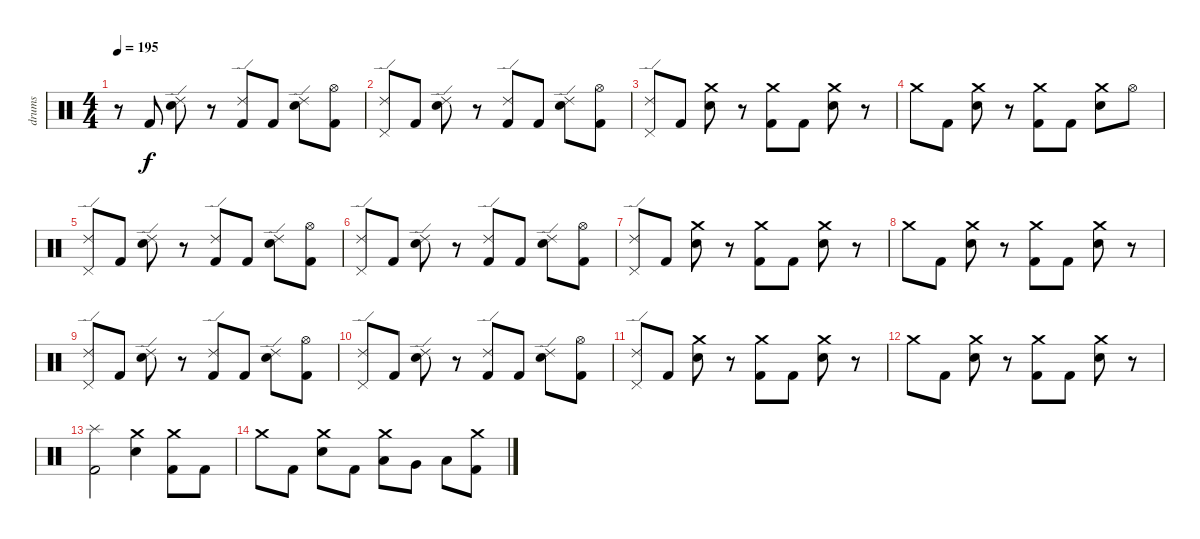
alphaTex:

\track ("drums" "drums") {instrument percussion}
\staff {score}
\articulation defaults
\ts (4 4)
\tempo 195
\clef neutral
\ks c
r.8{dy f} "Kick (hit) 2".8 ("Ride (edge) 2" "Electric Snare (hit)").8 r.8 ("Ride (edge) 2" "Kick (hit) 2").8 "Kick (hit) 2".8 ("Ride (edge) 2" "Electric Snare (hit)").8 ("Hi-Hat (open)" "Kick (hit) 2").8 |
("Pedal Hi-Hat (hit)" "Ride (edge) 2").8 "Kick (hit) 2".8 ("Ride (edge) 2" "Electric Snare (hit)").8 r.8 ("Ride (edge) 2" "Kick (hit) 2").8 "Kick (hit) 2".8 ("Ride (edge) 2" "Electric Snare (hit)").8 ("Hi-Hat (open)" "Kick (hit) 2").8 |
("Pedal Hi-Hat (hit)" "Ride (edge) 2").8 "Kick (hit) 2".8 ("Crash medium (hit)" "Electric Snare (hit)").8 r.8 ("Crash medium (hit)" "Kick (hit) 2").8 "Kick (hit) 2".8 ("Crash medium (hit)" "Electric Snare (hit)").8 r.8 |
"Crash medium (hit)".8 "Kick (hit) 2".8 ("Crash medium (hit)" "Electric Snare (hit)").8 r.8 ("Crash medium (hit)" "Kick (hit) 2").8 "Kick (hit) 2".8 ("Crash medium (hit)" "Electric Snare (hit)").8 "Hi-Hat (open)".8 |
("Pedal Hi-Hat (hit)" "Ride (edge) 2").8 "Kick (hit) 2".8 ("Ride (edge) 2" "Electric Snare (hit)").8 r.8 ("Ride (edge) 2" "Kick (hit) 2").8 "Kick (hit) 2".8 ("Ride (edge) 2" "Electric Snare (hit)").8 ("Hi-Hat (open)" "Kick (hit) 2").8 |
("Pedal Hi-Hat (hit)" "Ride (edge) 2").8 "Kick (hit) 2".8 ("Ride (edge) 2" "Electric Snare (hit)").8 r.8 ("Ride (edge) 2" "Kick (hit) 2").8 "Kick (hit) 2".8 ("Ride (edge) 2" "Electric Snare (hit)").8 ("Hi-Hat (open)" "Kick (hit) 2").8 |
("Pedal Hi-Hat (hit)" "Ride (edge) 2").8 "Kick (hit) 2".8 ("Crash medium (hit)" "Electric Snare (hit)").8 r.8 ("Crash medium (hit)" "Kick (hit) 2").8 "Kick (hit) 2".8 ("Crash medium (hit)" "Electric Snare (hit)").8 r.8 |
"Crash medium (hit)".8 "Kick (hit) 2".8 ("Crash medium (hit)" "Electric Snare (hit)").8 r.8 ("Crash medium (hit)" "Kick (hit) 2").8 "Kick (hit) 2".8 ("Crash medium (hit)" "Electric Snare (hit)").8 r.8 |
("Pedal Hi-Hat (hit)" "Ride (edge) 2").8 "Kick (hit) 2".8 ("Ride (edge) 2" "Electric Snare (hit)").8 r.8 ("Ride (edge) 2" "Kick (hit) 2").8 "Kick (hit) 2".8 ("Ride (edge) 2" "Electric Snare (hit)").8 ("Hi-Hat (open)" "Kick (hit) 2").8 |
("Pedal Hi-Hat (hit)" "Ride (edge) 2").8 "Kick (hit) 2".8 ("Ride (edge) 2" "Electric Snare (hit)").8 r.8 ("Ride (edge) 2" "Kick (hit) 2").8 "Kick (hit) 2".8 ("Ride (edge) 2" "Electric Snare (hit)").8 ("Hi-Hat (open)" "Kick (hit) 2").8 |
("Pedal Hi-Hat (hit)" "Ride (edge) 2").8 "Kick (hit) 2".8 ("Crash medium (hit)" "Electric Snare (hit)").8 r.8 ("Crash medium (hit)" "Kick (hit) 2").8 "Kick (hit) 2".8 ("Crash medium (hit)" "Electric Snare (hit)").8 r.8 |
"Crash medium (hit)".8 "Kick (hit) 2".8 ("Crash medium (hit)" "Electric Snare (hit)").8 r.8 ("Crash medium (hit)" "Kick (hit) 2").8 "Kick (hit) 2".8 ("Crash medium (hit)" "Electric Snare (hit)").8 r.8 |
("Splash (hit)" "Kick (hit) 2").2 ("Crash medium (hit)" "Electric Snare (hit)").4 ("Crash medium (hit)" "Kick (hit) 2").8 "Kick (hit) 2".8 |
"Crash medium (hit)".8 "Kick (hit) 2".8 ("Crash medium (hit)" "Electric Snare (hit)").8 "Kick (hit) 2".8 ("Crash medium (hit)" "Low Tom (hit)").8 "Very Low Tom (hit)".8 "Low Floor Tom (hit)".8 ("Crash medium (hit)" "Kick (hit) 2").8
